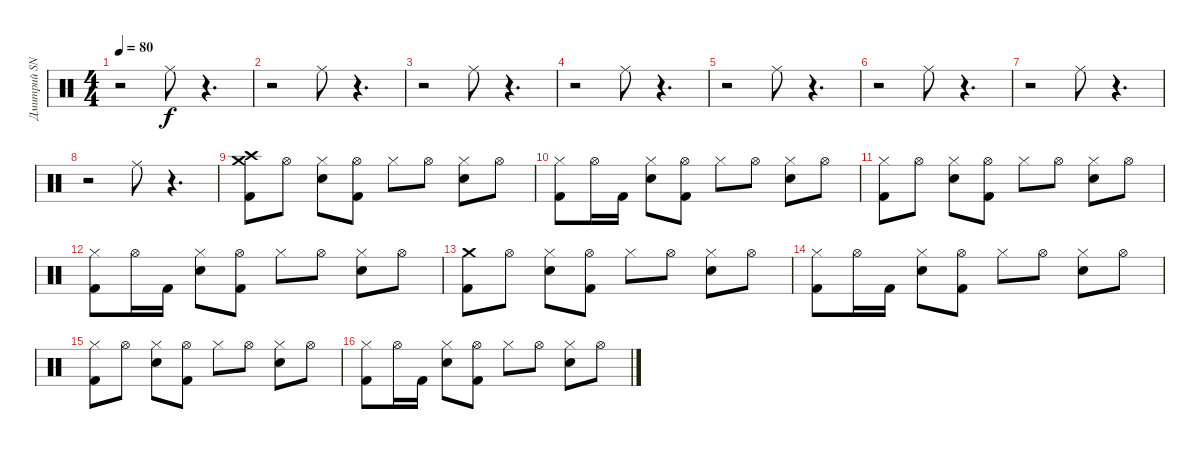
\track ("Дмитрий SNAKE Хакимов" "Дмитрий SN") {instrument percussion}
\staff {score}
\articulation defaults
\ts (4 4)
\tempo 80
\clef neutral
\ks c
r.2{dy f} "Ride (middle)".8 r.4{d} |
r.2 "Ride (middle)".8 r.4{d} |
r.2 "Ride (middle)".8 r.4{d} |
r.2 "Ride (middle)".8 r.4{d} |
r.2 "Ride (middle)".8 r.4{d} |
r.2 "Ride (middle)".8 r.4{d} |
r.2 "Ride (middle)".8 r.4{d} |
r.2 "Ride (middle)".8 r.4{d} |
("Crash high (hit)" "Crash medium (hit)" "Kick (hit) 2").8 "Hi-Hat (open)".8 ("Hi-Hat (closed)" "Electric Snare (hit)").8 ("Hi-Hat (open)" "Kick (hit) 2").8 "Hi-Hat (closed)".8 "Hi-Hat (open)".8 ("Hi-Hat (closed)" "Electric Snare (hit)").8 "Hi-Hat (open)".8 |
("Hi-Hat (closed)" "Kick (hit) 2").8 "Hi-Hat (open)".16 "Kick (hit) 2".16 ("Hi-Hat (closed)" "Electric Snare (hit)").8 ("Hi-Hat (open)" "Kick (hit) 2").8 "Hi-Hat (closed)".8 "Hi-Hat (open)".8 ("Hi-Hat (closed)" "Electric Snare (hit)").8 "Hi-Hat (open)".8 |
("Hi-Hat (closed)" "Kick (hit) 2").8 "Hi-Hat (open)".8 ("Hi-Hat (closed)" "Electric Snare (hit)").8 ("Hi-Hat (open)" "Kick (hit) 2").8 "Hi-Hat (closed)".8 "Hi-Hat (open)".8 ("Hi-Hat (closed)" "Electric Snare (hit)").8 "Hi-Hat (open)".8 |
("Hi-Hat (closed)" "Kick (hit) 2").8 "Hi-Hat (open)".16 "Kick (hit) 2".16 ("Hi-Hat (closed)" "Electric Snare (hit)").8 ("Hi-Hat (open)" "Kick (hit) 2").8 "Hi-Hat (closed)".8 "Hi-Hat (open)".8 ("Hi-Hat (closed)" "Electric Snare (hit)").8 "Hi-Hat (open)".8 |
("Crash medium (hit)" "Kick (hit) 2").8 "Hi-Hat (open)".8 ("Hi-Hat (closed)" "Electric Snare (hit)").8 ("Hi-Hat (open)" "Kick (hit) 2").8 "Hi-Hat (closed)".8 "Hi-Hat (open)".8 ("Hi-Hat (closed)" "Electric Snare (hit)").8 "Hi-Hat (open)".8 |
("Hi-Hat (closed)" "Kick (hit) 2").8 "Hi-Hat (open)".16 "Kick (hit) 2".16 ("Hi-Hat (closed)" "Electric Snare (hit)").8 ("Hi-Hat (open)" "Kick (hit) 2").8 "Hi-Hat (closed)".8 "Hi-Hat (open)".8 ("Hi-Hat (closed)" "Electric Snare (hit)").8 "Hi-Hat (open)".8 |
("Hi-Hat (closed)" "Kick (hit) 2").8 "Hi-Hat (open)".8 ("Hi-Hat (closed)" "Electric Snare (hit)").8 ("Hi-Hat (open)" "Kick (hit) 2").8 "Hi-Hat (closed)".8 "Hi-Hat (open)".8 ("Hi-Hat (closed)" "Electric Snare (hit)").8 "Hi-Hat (open)".8 |
("Hi-Hat (closed)" "Kick (hit) 2").8 "Hi-Hat (open)".16 "Kick (hit) 2".16 ("Hi-Hat (closed)" "Electric Snare (hit)").8 ("Hi-Hat (open)" "Kick (hit) 2").8 "Hi-Hat (closed)".8 "Hi-Hat (open)".8 ("Hi-Hat (closed)" "Electric Snare (hit)").8 "Hi-Hat (open)".8
